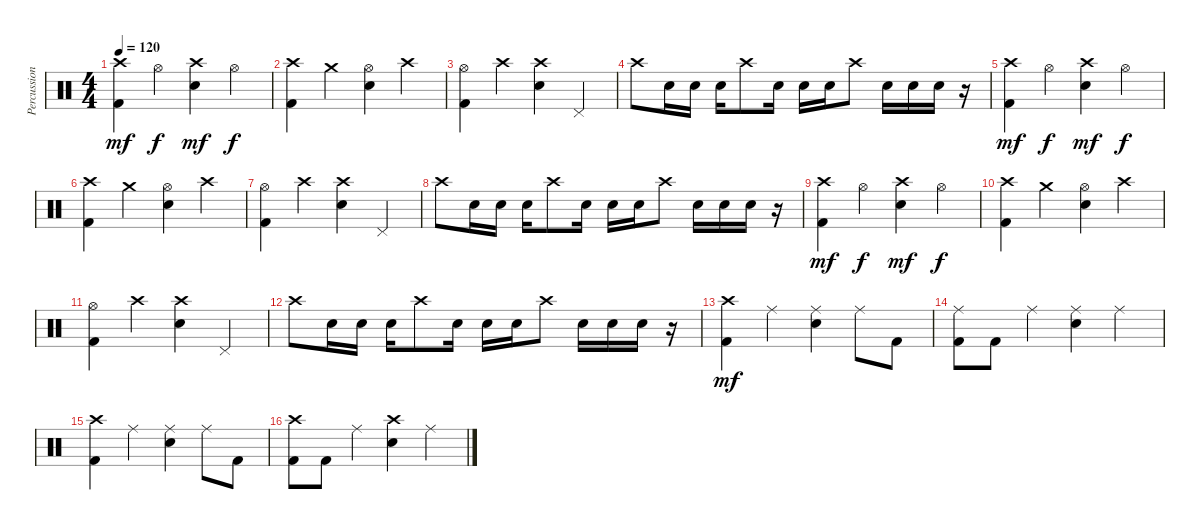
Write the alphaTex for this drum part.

\track ("Percussioni" "Percussion") {instrument percussion}
\staff {score}
\articulation defaults
\ts (4 4)
\tempo 120
\clef neutral
\ks c
("Crash high (hit)" "Kick (hit) 2").4{dy mf} "Hi-Hat (open)".4{dy f} ("Crash high (hit)" "Snare (hit) 2").4{dy mf} "Hi-Hat (open)".4{dy f} |
("Crash high (hit)" "Kick (hit) 2").4 "Crash medium (hit)".4 ("Hi-Hat (open)" "Snare (hit) 2").4 "Crash high (hit)".4 |
("Hi-Hat (open)" "Kick (hit) 2").4 "Crash high (hit)".4 ("Crash high (hit)" "Snare (hit) 2").4 "Pedal Hi-Hat (hit)".4 |
"Crash high (hit)".8 "Snare (hit) 2".16 "Snare (hit) 2".16 "Snare (hit) 2".16 "Crash high (hit)".8 "Snare (hit) 2".16 "Snare (hit) 2".16 "Snare (hit) 2".16 "Crash high (hit)".8 "Snare (hit) 2".16 "Snare (hit) 2".16 "Snare (hit) 2".16 r.16 |
("Crash high (hit)" "Kick (hit) 2").4{dy mf} "Hi-Hat (open)".4{dy f} ("Crash high (hit)" "Snare (hit) 2").4{dy mf} "Hi-Hat (open)".4{dy f} |
("Crash high (hit)" "Kick (hit) 2").4 "Crash medium (hit)".4 ("Hi-Hat (open)" "Snare (hit) 2").4 "Crash high (hit)".4 |
("Hi-Hat (open)" "Kick (hit) 2").4 "Crash high (hit)".4 ("Crash high (hit)" "Snare (hit) 2").4 "Pedal Hi-Hat (hit)".4 |
"Crash high (hit)".8 "Snare (hit) 2".16 "Snare (hit) 2".16 "Snare (hit) 2".16 "Crash high (hit)".8 "Snare (hit) 2".16 "Snare (hit) 2".16 "Snare (hit) 2".16 "Crash high (hit)".8 "Snare (hit) 2".16 "Snare (hit) 2".16 "Snare (hit) 2".16 r.16 |
("Crash high (hit)" "Kick (hit) 2").4{dy mf} "Hi-Hat (open)".4{dy f} ("Crash high (hit)" "Snare (hit) 2").4{dy mf} "Hi-Hat (open)".4{dy f} |
("Crash high (hit)" "Kick (hit) 2").4 "Crash medium (hit)".4 ("Hi-Hat (open)" "Snare (hit) 2").4 "Crash high (hit)".4 |
("Hi-Hat (open)" "Kick (hit) 2").4 "Crash high (hit)".4 ("Crash high (hit)" "Snare (hit) 2").4 "Pedal Hi-Hat (hit)".4 |
"Crash high (hit)".8 "Snare (hit) 2".16 "Snare (hit) 2".16 "Snare (hit) 2".16 "Crash high (hit)".8 "Snare (hit) 2".16 "Snare (hit) 2".16 "Snare (hit) 2".16 "Crash high (hit)".8 "Snare (hit) 2".16 "Snare (hit) 2".16 "Snare (hit) 2".16 r.16 |
("Crash high (hit)" "Kick (hit) 2").4{dy mf} "Ride (middle)".4 ("Ride (middle)" "Snare (hit) 2").4 "Ride (middle)".8 "Kick (hit) 2".8 |
("Ride (middle)" "Kick (hit) 2").8 "Kick (hit) 2".8 "Ride (middle)".4 ("Ride (middle)" "Snare (hit) 2").4 "Ride (middle)".4 |
("Crash high (hit)" "Kick (hit) 2").4 "Ride (middle)".4 ("Ride (middle)" "Snare (hit) 2").4 "Ride (middle)".8 "Kick (hit) 2".8 |
("Crash high (hit)" "Kick (hit) 2").8 "Kick (hit) 2".8 "Ride (middle)".4 ("Crash high (hit)" "Snare (hit) 2").4 "Ride (middle)".4
